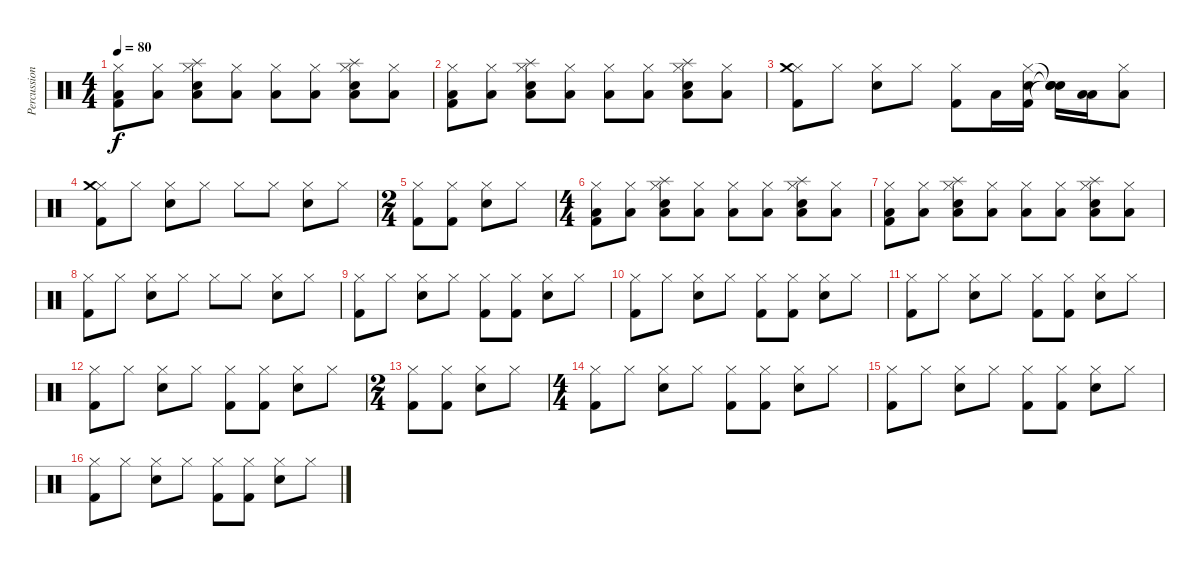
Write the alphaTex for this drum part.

\track ("Percussion" "Percussion") {instrument percussion}
\staff {score}
\articulation defaults
\ts (4 4)
\tempo 80
\clef neutral
\ks c
("Hi-Hat (closed)" "Kick (hit) 2" "Low Tom (hit)").8{dy f} ("Hi-Hat (closed)" "Low Tom (hit)").8 ("Hi-Hat (closed)" "Snare (hit) 2" "Low Tom (hit)" "Splash (hit)").8 ("Hi-Hat (closed)" "Low Tom (hit)").8 ("Hi-Hat (closed)" "Low Tom (hit)").8 ("Hi-Hat (closed)" "Low Tom (hit)").8 ("Hi-Hat (closed)" "Snare (hit) 2" "Low Tom (hit)" "Splash (hit)").8 ("Hi-Hat (closed)" "Low Tom (hit)").8 |
("Hi-Hat (closed)" "Kick (hit) 2" "Low Tom (hit)").8 ("Hi-Hat (closed)" "Low Tom (hit)").8 ("Hi-Hat (closed)" "Snare (hit) 2" "Low Tom (hit)" "Splash (hit)").8 ("Hi-Hat (closed)" "Low Tom (hit)").8 ("Hi-Hat (closed)" "Low Tom (hit)").8 ("Hi-Hat (closed)" "Low Tom (hit)").8 ("Hi-Hat (closed)" "Snare (hit) 2" "Low Tom (hit)" "Splash (hit)").8 ("Hi-Hat (closed)" "Low Tom (hit)").8 |
("Hi-Hat (closed)" "Kick (hit) 2" "Crash medium (hit)").8 "Hi-Hat (closed)".8 ("Hi-Hat (closed)" "Snare (hit) 2").8 "Hi-Hat (closed)".8 ("Hi-Hat (closed)" "Kick (hit) 2").8 "Low Tom (hit)".16 ("Hi-Hat (closed)" "Snare (hit) 2" "Kick (hit) 2").16 ("Snare (hit)"{t} "Snare (hit)"{t} "Snare (hit)"{t}).16 ("Low Tom (hit)" "Low Tom (hit)").16 ("Hi-Hat (closed)" "Low Tom (hit)").8 |
("Hi-Hat (closed)" "Kick (hit) 2" "Crash medium (hit)").8 "Hi-Hat (closed)".8 ("Hi-Hat (closed)" "Snare (hit) 2").8 "Hi-Hat (closed)".8 "Hi-Hat (closed)".8 "Hi-Hat (closed)".8 ("Hi-Hat (closed)" "Snare (hit) 2").8 "Hi-Hat (closed)".8 |
\ts (2 4)
("Hi-Hat (closed)" "Kick (hit) 2").8 ("Hi-Hat (closed)" "Kick (hit) 2").8 ("Hi-Hat (closed)" "Snare (hit) 2").8 "Hi-Hat (closed)".8 |
\ts (4 4)
("Hi-Hat (closed)" "Kick (hit) 2" "Low Tom (hit)").8 ("Hi-Hat (closed)" "Low Tom (hit)").8 ("Hi-Hat (closed)" "Snare (hit) 2" "Low Tom (hit)" "Splash (hit)").8 ("Hi-Hat (closed)" "Low Tom (hit)").8 ("Hi-Hat (closed)" "Low Tom (hit)").8 ("Hi-Hat (closed)" "Low Tom (hit)").8 ("Hi-Hat (closed)" "Snare (hit) 2" "Low Tom (hit)" "Splash (hit)").8 ("Hi-Hat (closed)" "Low Tom (hit)").8 |
("Hi-Hat (closed)" "Kick (hit) 2" "Low Tom (hit)").8 ("Hi-Hat (closed)" "Low Tom (hit)").8 ("Hi-Hat (closed)" "Snare (hit) 2" "Low Tom (hit)" "Splash (hit)").8 ("Hi-Hat (closed)" "Low Tom (hit)").8 ("Hi-Hat (closed)" "Low Tom (hit)").8 ("Hi-Hat (closed)" "Low Tom (hit)").8 ("Hi-Hat (closed)" "Snare (hit) 2" "Low Tom (hit)" "Splash (hit)").8 ("Hi-Hat (closed)" "Low Tom (hit)").8 |
("Hi-Hat (closed)" "Kick (hit) 2").8 "Hi-Hat (closed)".8 ("Hi-Hat (closed)" "Snare (hit) 2").8 "Hi-Hat (closed)".8 "Hi-Hat (closed)".8 "Hi-Hat (closed)".8 ("Hi-Hat (closed)" "Snare (hit) 2").8 "Hi-Hat (closed)".8 |
("Hi-Hat (closed)" "Kick (hit) 2").8 "Hi-Hat (closed)".8 ("Hi-Hat (closed)" "Snare (hit) 2").8 "Hi-Hat (closed)".8 ("Hi-Hat (closed)" "Kick (hit) 2").8 ("Hi-Hat (closed)" "Kick (hit) 2").8 ("Hi-Hat (closed)" "Snare (hit) 2").8 "Hi-Hat (closed)".8 |
("Hi-Hat (closed)" "Kick (hit) 2").8 "Hi-Hat (closed)".8 ("Hi-Hat (closed)" "Snare (hit) 2").8 "Hi-Hat (closed)".8 ("Hi-Hat (closed)" "Kick (hit) 2").8 ("Hi-Hat (closed)" "Kick (hit) 2").8 ("Hi-Hat (closed)" "Snare (hit) 2").8 "Hi-Hat (closed)".8 |
("Hi-Hat (closed)" "Kick (hit) 2").8 "Hi-Hat (closed)".8 ("Hi-Hat (closed)" "Snare (hit) 2").8 "Hi-Hat (closed)".8 ("Hi-Hat (closed)" "Kick (hit) 2").8 ("Hi-Hat (closed)" "Kick (hit) 2").8 ("Hi-Hat (closed)" "Snare (hit) 2").8 "Hi-Hat (closed)".8 |
("Hi-Hat (closed)" "Kick (hit) 2").8 "Hi-Hat (closed)".8 ("Hi-Hat (closed)" "Snare (hit) 2").8 "Hi-Hat (closed)".8 ("Hi-Hat (closed)" "Kick (hit) 2").8 ("Hi-Hat (closed)" "Kick (hit) 2").8 ("Hi-Hat (closed)" "Snare (hit) 2").8 "Hi-Hat (closed)".8 |
\ts (2 4)
("Hi-Hat (closed)" "Kick (hit) 2").8 ("Hi-Hat (closed)" "Kick (hit) 2").8 ("Hi-Hat (closed)" "Snare (hit) 2").8 "Hi-Hat (closed)".8 |
\ts (4 4)
("Hi-Hat (closed)" "Kick (hit) 2").8 "Hi-Hat (closed)".8 ("Hi-Hat (closed)" "Snare (hit) 2").8 "Hi-Hat (closed)".8 ("Hi-Hat (closed)" "Kick (hit) 2").8 ("Hi-Hat (closed)" "Kick (hit) 2").8 ("Hi-Hat (closed)" "Snare (hit) 2").8 "Hi-Hat (closed)".8 |
("Hi-Hat (closed)" "Kick (hit) 2").8 "Hi-Hat (closed)".8 ("Hi-Hat (closed)" "Snare (hit) 2").8 "Hi-Hat (closed)".8 ("Hi-Hat (closed)" "Kick (hit) 2").8 ("Hi-Hat (closed)" "Kick (hit) 2").8 ("Hi-Hat (closed)" "Snare (hit) 2").8 "Hi-Hat (closed)".8 |
("Hi-Hat (closed)" "Kick (hit) 2").8 "Hi-Hat (closed)".8 ("Hi-Hat (closed)" "Snare (hit) 2").8 "Hi-Hat (closed)".8 ("Hi-Hat (closed)" "Kick (hit) 2").8 ("Hi-Hat (closed)" "Kick (hit) 2").8 ("Hi-Hat (closed)" "Snare (hit) 2").8 "Hi-Hat (closed)".8
